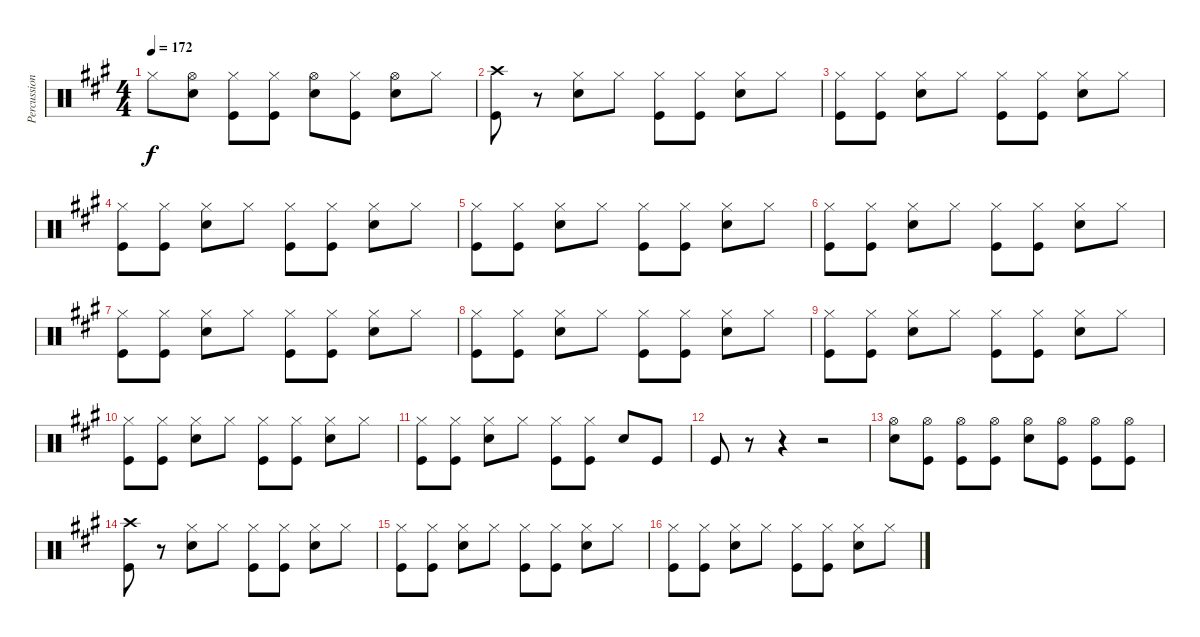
\track ("Percussion" "Percussion") {instrument percussion}
\staff {score}
\articulation defaults
\ts (4 4)
\tempo 172
\clef neutral
\ks a "Hi-Hat (closed)".8{dy f}
("Hi-Hat (open)" "Snare (hit) 2").8 ("Hi-Hat (closed)" "Kick (hit)").8 ("Hi-Hat (closed)" "Kick (hit)").8 ("Hi-Hat (open)" "Snare (hit) 2").8 ("Hi-Hat (closed)" "Kick (hit)").8 ("Hi-Hat (open)" "Snare (hit) 2").8 "Hi-Hat (closed)".8 |
("Crash high (hit)" "Kick (hit)").8 r.8 ("Hi-Hat (closed)" "Snare (hit) 2").8 "Hi-Hat (closed)".8 ("Hi-Hat (closed)" "Kick (hit)").8 ("Hi-Hat (closed)" "Kick (hit)").8 ("Hi-Hat (closed)" "Snare (hit) 2").8 "Hi-Hat (closed)".8 |
("Hi-Hat (closed)" "Kick (hit)").8 ("Hi-Hat (closed)" "Kick (hit)").8 ("Hi-Hat (closed)" "Snare (hit) 2").8 "Hi-Hat (closed)".8 ("Hi-Hat (closed)" "Kick (hit)").8 ("Hi-Hat (closed)" "Kick (hit)").8 ("Hi-Hat (closed)" "Snare (hit) 2").8 "Hi-Hat (closed)".8 |
("Hi-Hat (closed)" "Kick (hit)").8 ("Hi-Hat (closed)" "Kick (hit)").8 ("Hi-Hat (closed)" "Snare (hit) 2").8 "Hi-Hat (closed)".8 ("Hi-Hat (closed)" "Kick (hit)").8 ("Hi-Hat (closed)" "Kick (hit)").8 ("Hi-Hat (closed)" "Snare (hit) 2").8 "Hi-Hat (closed)".8 |
("Hi-Hat (closed)" "Kick (hit)").8 ("Hi-Hat (closed)" "Kick (hit)").8 ("Hi-Hat (closed)" "Snare (hit) 2").8 "Hi-Hat (closed)".8 ("Hi-Hat (closed)" "Kick (hit)").8 ("Hi-Hat (closed)" "Kick (hit)").8 ("Hi-Hat (closed)" "Snare (hit) 2").8 "Hi-Hat (closed)".8 |
("Hi-Hat (closed)" "Kick (hit)").8 ("Hi-Hat (closed)" "Kick (hit)").8 ("Hi-Hat (closed)" "Snare (hit) 2").8 "Hi-Hat (closed)".8 ("Hi-Hat (closed)" "Kick (hit)").8 ("Hi-Hat (closed)" "Kick (hit)").8 ("Hi-Hat (closed)" "Snare (hit) 2").8 "Hi-Hat (closed)".8 |
("Hi-Hat (closed)" "Kick (hit)").8 ("Hi-Hat (closed)" "Kick (hit)").8 ("Hi-Hat (closed)" "Snare (hit) 2").8 "Hi-Hat (closed)".8 ("Hi-Hat (closed)" "Kick (hit)").8 ("Hi-Hat (closed)" "Kick (hit)").8 ("Hi-Hat (closed)" "Snare (hit) 2").8 "Hi-Hat (closed)".8 |
("Hi-Hat (closed)" "Kick (hit)").8 ("Hi-Hat (closed)" "Kick (hit)").8 ("Hi-Hat (closed)" "Snare (hit) 2").8 "Hi-Hat (closed)".8 ("Hi-Hat (closed)" "Kick (hit)").8 ("Hi-Hat (closed)" "Kick (hit)").8 ("Hi-Hat (closed)" "Snare (hit) 2").8 "Hi-Hat (closed)".8 |
("Hi-Hat (closed)" "Kick (hit)").8 ("Hi-Hat (closed)" "Kick (hit)").8 ("Hi-Hat (closed)" "Snare (hit) 2").8 "Hi-Hat (closed)".8 ("Hi-Hat (closed)" "Kick (hit)").8 ("Hi-Hat (closed)" "Kick (hit)").8 ("Hi-Hat (closed)" "Snare (hit) 2").8 "Hi-Hat (closed)".8 |
("Hi-Hat (closed)" "Kick (hit)").8 ("Hi-Hat (closed)" "Kick (hit)").8 ("Hi-Hat (closed)" "Snare (hit) 2").8 "Hi-Hat (closed)".8 ("Hi-Hat (closed)" "Kick (hit)").8 ("Hi-Hat (closed)" "Kick (hit)").8 ("Hi-Hat (closed)" "Snare (hit) 2").8 "Hi-Hat (closed)".8 |
("Hi-Hat (closed)" "Kick (hit)").8 ("Hi-Hat (closed)" "Kick (hit)").8 ("Hi-Hat (closed)" "Snare (hit) 2").8 "Hi-Hat (closed)".8 ("Hi-Hat (closed)" "Kick (hit)").8 ("Hi-Hat (closed)" "Kick (hit)").8 "Electric Snare (hit)".8 "Kick (hit)".8 |
"Kick (hit)".8 r.8 r.4 r.2 |
("Hi-Hat (open)" "Snare (hit) 2").8 ("Hi-Hat (open)" "Kick (hit)").8 ("Hi-Hat (open)" "Kick (hit)").8 ("Hi-Hat (open)" "Kick (hit)").8 ("Hi-Hat (open)" "Snare (hit) 2").8 ("Hi-Hat (open)" "Kick (hit)").8 ("Hi-Hat (open)" "Kick (hit)").8 ("Hi-Hat (open)" "Kick (hit)").8 |
("Crash high (hit)" "Kick (hit)").8 r.8 ("Hi-Hat (closed)" "Snare (hit) 2").8 "Hi-Hat (closed)".8 ("Hi-Hat (closed)" "Kick (hit)").8 ("Hi-Hat (closed)" "Kick (hit)").8 ("Hi-Hat (closed)" "Snare (hit) 2").8 "Hi-Hat (closed)".8 |
("Hi-Hat (closed)" "Kick (hit)").8 ("Hi-Hat (closed)" "Kick (hit)").8 ("Hi-Hat (closed)" "Snare (hit) 2").8 "Hi-Hat (closed)".8 ("Hi-Hat (closed)" "Kick (hit)").8 ("Hi-Hat (closed)" "Kick (hit)").8 ("Hi-Hat (closed)" "Snare (hit) 2").8 "Hi-Hat (closed)".8 |
("Hi-Hat (closed)" "Kick (hit)").8 ("Hi-Hat (closed)" "Kick (hit)").8 ("Hi-Hat (closed)" "Snare (hit) 2").8 "Hi-Hat (closed)".8 ("Hi-Hat (closed)" "Kick (hit)").8 ("Hi-Hat (closed)" "Kick (hit)").8 ("Hi-Hat (closed)" "Snare (hit) 2").8 "Hi-Hat (closed)".8
